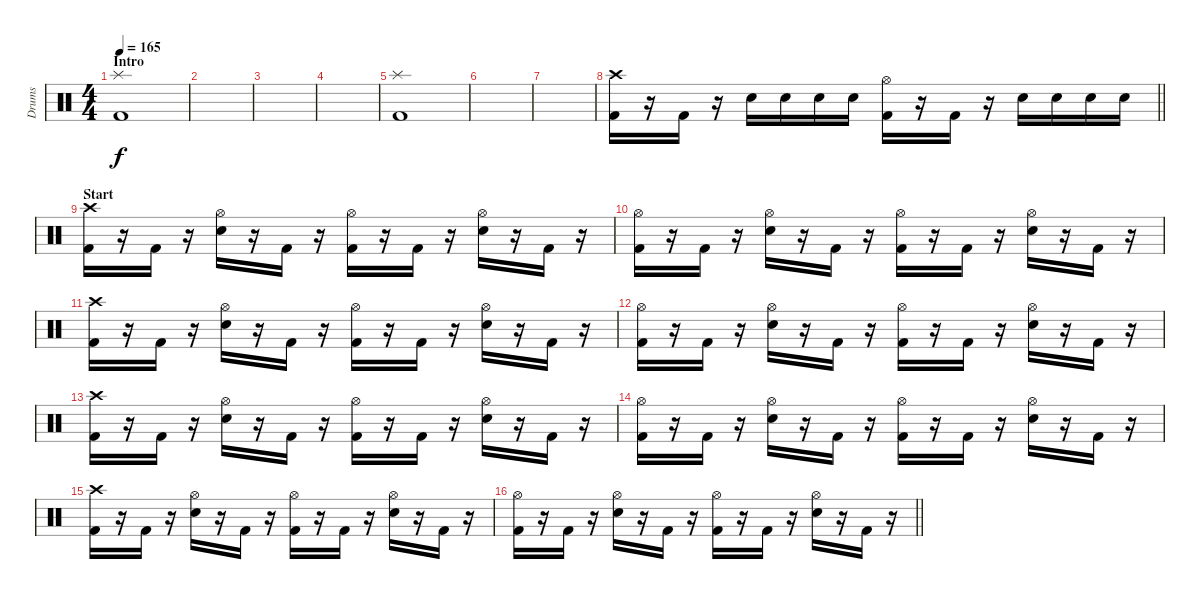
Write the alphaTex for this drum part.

\track ("Drums" "Drums") {instrument percussion}
\staff {score}
\articulation defaults
\ts (4 4)
\section ("" "Intro")
\tempo 165
\clef neutral
\ks c
("Splash (hit)" "Kick (hit) 2").1{dy f} |
|
|
|
("Splash (hit)" "Kick (hit) 2").1 |
|
|
\barLineRight lightlight
("Crash high (hit)" "Kick (hit) 2").16 r.16 "Kick (hit) 2".16 r.16 "Snare (hit) 2".16 "Snare (hit) 2".16 "Snare (hit) 2".16 "Snare (hit) 2".16 ("Hi-Hat (open)" "Kick (hit) 2").16 r.16 "Kick (hit) 2".16 r.16 "Snare (hit) 2".16 "Snare (hit) 2".16 "Snare (hit) 2".16 "Snare (hit) 2".16 |
\section ("" "Start")
("Crash high (hit)" "Kick (hit) 2").16 r.16 "Kick (hit) 2".16 r.16 ("Hi-Hat (open)" "Snare (hit) 2").16 r.16 "Kick (hit) 2".16 r.16 ("Hi-Hat (open)" "Kick (hit) 2").16 r.16 "Kick (hit) 2".16 r.16 ("Hi-Hat (open)" "Snare (hit) 2").16 r.16 "Kick (hit) 2".16 r.16 |
("Hi-Hat (open)" "Kick (hit) 2").16 r.16 "Kick (hit) 2".16 r.16 ("Hi-Hat (open)" "Snare (hit) 2").16 r.16 "Kick (hit) 2".16 r.16 ("Hi-Hat (open)" "Kick (hit) 2").16 r.16 "Kick (hit) 2".16 r.16 ("Hi-Hat (open)" "Snare (hit) 2").16 r.16 "Kick (hit) 2".16 r.16 |
("Crash high (hit)" "Kick (hit) 2").16 r.16 "Kick (hit) 2".16 r.16 ("Hi-Hat (open)" "Snare (hit) 2").16 r.16 "Kick (hit) 2".16 r.16 ("Hi-Hat (open)" "Kick (hit) 2").16 r.16 "Kick (hit) 2".16 r.16 ("Hi-Hat (open)" "Snare (hit) 2").16 r.16 "Kick (hit) 2".16 r.16 |
("Hi-Hat (open)" "Kick (hit) 2").16 r.16 "Kick (hit) 2".16 r.16 ("Hi-Hat (open)" "Snare (hit) 2").16 r.16 "Kick (hit) 2".16 r.16 ("Hi-Hat (open)" "Kick (hit) 2").16 r.16 "Kick (hit) 2".16 r.16 ("Hi-Hat (open)" "Snare (hit) 2").16 r.16 "Kick (hit) 2".16 r.16 |
("Crash high (hit)" "Kick (hit) 2").16 r.16 "Kick (hit) 2".16 r.16 ("Hi-Hat (open)" "Snare (hit) 2").16 r.16 "Kick (hit) 2".16 r.16 ("Hi-Hat (open)" "Kick (hit) 2").16 r.16 "Kick (hit) 2".16 r.16 ("Hi-Hat (open)" "Snare (hit) 2").16 r.16 "Kick (hit) 2".16 r.16 |
("Hi-Hat (open)" "Kick (hit) 2").16 r.16 "Kick (hit) 2".16 r.16 ("Hi-Hat (open)" "Snare (hit) 2").16 r.16 "Kick (hit) 2".16 r.16 ("Hi-Hat (open)" "Kick (hit) 2").16 r.16 "Kick (hit) 2".16 r.16 ("Hi-Hat (open)" "Snare (hit) 2").16 r.16 "Kick (hit) 2".16 r.16 |
("Crash high (hit)" "Kick (hit) 2").16 r.16 "Kick (hit) 2".16 r.16 ("Hi-Hat (open)" "Snare (hit) 2").16 r.16 "Kick (hit) 2".16 r.16 ("Hi-Hat (open)" "Kick (hit) 2").16 r.16 "Kick (hit) 2".16 r.16 ("Hi-Hat (open)" "Snare (hit) 2").16 r.16 "Kick (hit) 2".16 r.16 |
\barLineRight lightlight
("Hi-Hat (open)" "Kick (hit) 2").16 r.16 "Kick (hit) 2".16 r.16 ("Hi-Hat (open)" "Snare (hit) 2").16 r.16 "Kick (hit) 2".16 r.16 ("Hi-Hat (open)" "Kick (hit) 2").16 r.16 "Kick (hit) 2".16 r.16 ("Hi-Hat (open)" "Snare (hit) 2").16 r.16 "Kick (hit) 2".16 r.16
